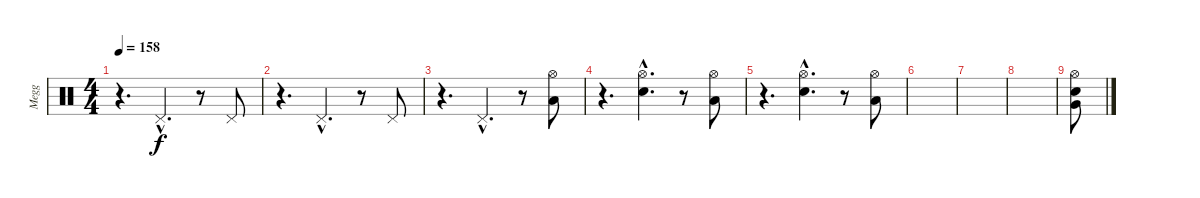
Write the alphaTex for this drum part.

\track ("Megg" "Megg") {instrument percussion}
\staff {score}
\articulation defaults
\ts (4 4)
\tempo 158
\clef neutral
\ks c
r.4{d dy f} "Pedal Hi-Hat (hit)"{hac}.4{d} r.8 "Pedal Hi-Hat (hit)".8 |
r.4{d} "Pedal Hi-Hat (hit)"{hac}.4{d} r.8 "Pedal Hi-Hat (hit)".8 |
r.4{d} "Pedal Hi-Hat (hit)"{hac}.4{d} r.8 ("Low Tom (hit)" "Hi-Hat (open)").8 |
r.4{d} ("Electric Snare (hit)"{hac} "Hi-Hat (open)"{hac}).4{d} r.8 ("Low Tom (hit)" "Hi-Hat (open)").8 |
r.4{d} ("Electric Snare (hit)"{hac} "Hi-Hat (open)"{hac}).4{d} r.8 ("Low Tom (hit)" "Hi-Hat (open)").8 |
|
|
|
("Very Low Tom (hit)" "Electric Snare (hit)" "Hi-Hat (open)").8
